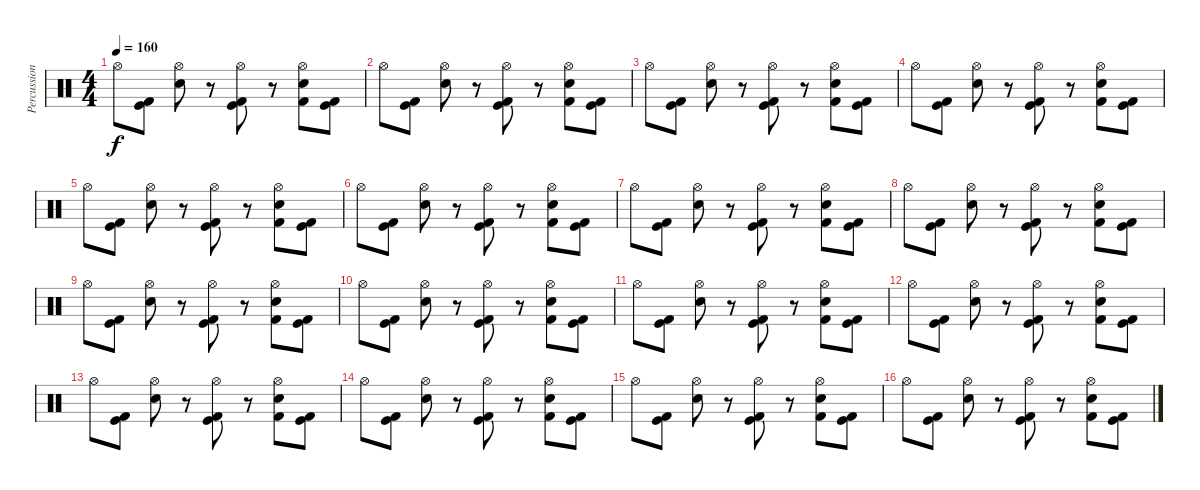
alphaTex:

\track ("Percussions" "Percussion") {instrument percussion}
\staff {score}
\articulation defaults
\ts (4 4)
\tempo 160
\clef neutral
\ks c "Hi-Hat (open)".8{dy f}
("Kick (hit) 2" "Kick (hit)").8 ("Snare (hit) 2" "Hi-Hat (open)").8 r.8 ("Kick (hit) 2" "Kick (hit)" "Hi-Hat (open)").8 r.8 ("Kick (hit) 2" "Snare (hit) 2" "Hi-Hat (open)").8 ("Kick (hit) 2" "Kick (hit)").8 |
"Hi-Hat (open)".8 ("Kick (hit) 2" "Kick (hit)").8 ("Snare (hit) 2" "Hi-Hat (open)").8 r.8 ("Kick (hit) 2" "Kick (hit)" "Hi-Hat (open)").8 r.8 ("Kick (hit) 2" "Snare (hit) 2" "Hi-Hat (open)").8 ("Kick (hit) 2" "Kick (hit)").8 |
"Hi-Hat (open)".8 ("Kick (hit) 2" "Kick (hit)").8 ("Snare (hit) 2" "Hi-Hat (open)").8 r.8 ("Kick (hit) 2" "Kick (hit)" "Hi-Hat (open)").8 r.8 ("Kick (hit) 2" "Snare (hit) 2" "Hi-Hat (open)").8 ("Kick (hit) 2" "Kick (hit)").8 |
"Hi-Hat (open)".8 ("Kick (hit) 2" "Kick (hit)").8 ("Snare (hit) 2" "Hi-Hat (open)").8 r.8 ("Kick (hit) 2" "Kick (hit)" "Hi-Hat (open)").8 r.8 ("Kick (hit) 2" "Snare (hit) 2" "Hi-Hat (open)").8 ("Kick (hit) 2" "Kick (hit)").8 |
"Hi-Hat (open)".8 ("Kick (hit) 2" "Kick (hit)").8 ("Snare (hit) 2" "Hi-Hat (open)").8 r.8 ("Kick (hit) 2" "Kick (hit)" "Hi-Hat (open)").8 r.8 ("Kick (hit) 2" "Snare (hit) 2" "Hi-Hat (open)").8 ("Kick (hit) 2" "Kick (hit)").8 |
"Hi-Hat (open)".8 ("Kick (hit) 2" "Kick (hit)").8 ("Snare (hit) 2" "Hi-Hat (open)").8 r.8 ("Kick (hit) 2" "Kick (hit)" "Hi-Hat (open)").8 r.8 ("Kick (hit) 2" "Snare (hit) 2" "Hi-Hat (open)").8 ("Kick (hit) 2" "Kick (hit)").8 |
"Hi-Hat (open)".8 ("Kick (hit) 2" "Kick (hit)").8 ("Snare (hit) 2" "Hi-Hat (open)").8 r.8 ("Kick (hit) 2" "Kick (hit)" "Hi-Hat (open)").8 r.8 ("Kick (hit) 2" "Snare (hit) 2" "Hi-Hat (open)").8 ("Kick (hit) 2" "Kick (hit)").8 |
"Hi-Hat (open)".8 ("Kick (hit) 2" "Kick (hit)").8 ("Snare (hit) 2" "Hi-Hat (open)").8 r.8 ("Kick (hit) 2" "Kick (hit)" "Hi-Hat (open)").8 r.8 ("Kick (hit) 2" "Snare (hit) 2" "Hi-Hat (open)").8 ("Kick (hit) 2" "Kick (hit)").8 |
"Hi-Hat (open)".8 ("Kick (hit) 2" "Kick (hit)").8 ("Snare (hit) 2" "Hi-Hat (open)").8 r.8 ("Kick (hit) 2" "Kick (hit)" "Hi-Hat (open)").8 r.8 ("Kick (hit) 2" "Snare (hit) 2" "Hi-Hat (open)").8 ("Kick (hit) 2" "Kick (hit)").8 |
"Hi-Hat (open)".8 ("Kick (hit) 2" "Kick (hit)").8 ("Snare (hit) 2" "Hi-Hat (open)").8 r.8 ("Kick (hit) 2" "Kick (hit)" "Hi-Hat (open)").8 r.8 ("Kick (hit) 2" "Snare (hit) 2" "Hi-Hat (open)").8 ("Kick (hit) 2" "Kick (hit)").8 |
"Hi-Hat (open)".8 ("Kick (hit) 2" "Kick (hit)").8 ("Snare (hit) 2" "Hi-Hat (open)").8 r.8 ("Kick (hit) 2" "Kick (hit)" "Hi-Hat (open)").8 r.8 ("Kick (hit) 2" "Snare (hit) 2" "Hi-Hat (open)").8 ("Kick (hit) 2" "Kick (hit)").8 |
"Hi-Hat (open)".8 ("Kick (hit) 2" "Kick (hit)").8 ("Snare (hit) 2" "Hi-Hat (open)").8 r.8 ("Kick (hit) 2" "Kick (hit)" "Hi-Hat (open)").8 r.8 ("Kick (hit) 2" "Snare (hit) 2" "Hi-Hat (open)").8 ("Kick (hit) 2" "Kick (hit)").8 |
"Hi-Hat (open)".8 ("Kick (hit) 2" "Kick (hit)").8 ("Snare (hit) 2" "Hi-Hat (open)").8 r.8 ("Kick (hit) 2" "Kick (hit)" "Hi-Hat (open)").8 r.8 ("Kick (hit) 2" "Snare (hit) 2" "Hi-Hat (open)").8 ("Kick (hit) 2" "Kick (hit)").8 |
"Hi-Hat (open)".8 ("Kick (hit) 2" "Kick (hit)").8 ("Snare (hit) 2" "Hi-Hat (open)").8 r.8 ("Kick (hit) 2" "Kick (hit)" "Hi-Hat (open)").8 r.8 ("Kick (hit) 2" "Snare (hit) 2" "Hi-Hat (open)").8 ("Kick (hit) 2" "Kick (hit)").8 |
"Hi-Hat (open)".8 ("Kick (hit) 2" "Kick (hit)").8 ("Snare (hit) 2" "Hi-Hat (open)").8 r.8 ("Kick (hit) 2" "Kick (hit)" "Hi-Hat (open)").8 r.8 ("Kick (hit) 2" "Snare (hit) 2" "Hi-Hat (open)").8 ("Kick (hit) 2" "Kick (hit)").8 |
"Hi-Hat (open)".8 ("Kick (hit) 2" "Kick (hit)").8 ("Snare (hit) 2" "Hi-Hat (open)").8 r.8 ("Kick (hit) 2" "Kick (hit)" "Hi-Hat (open)").8 r.8 ("Kick (hit) 2" "Snare (hit) 2" "Hi-Hat (open)").8 ("Kick (hit) 2" "Kick (hit)").8
